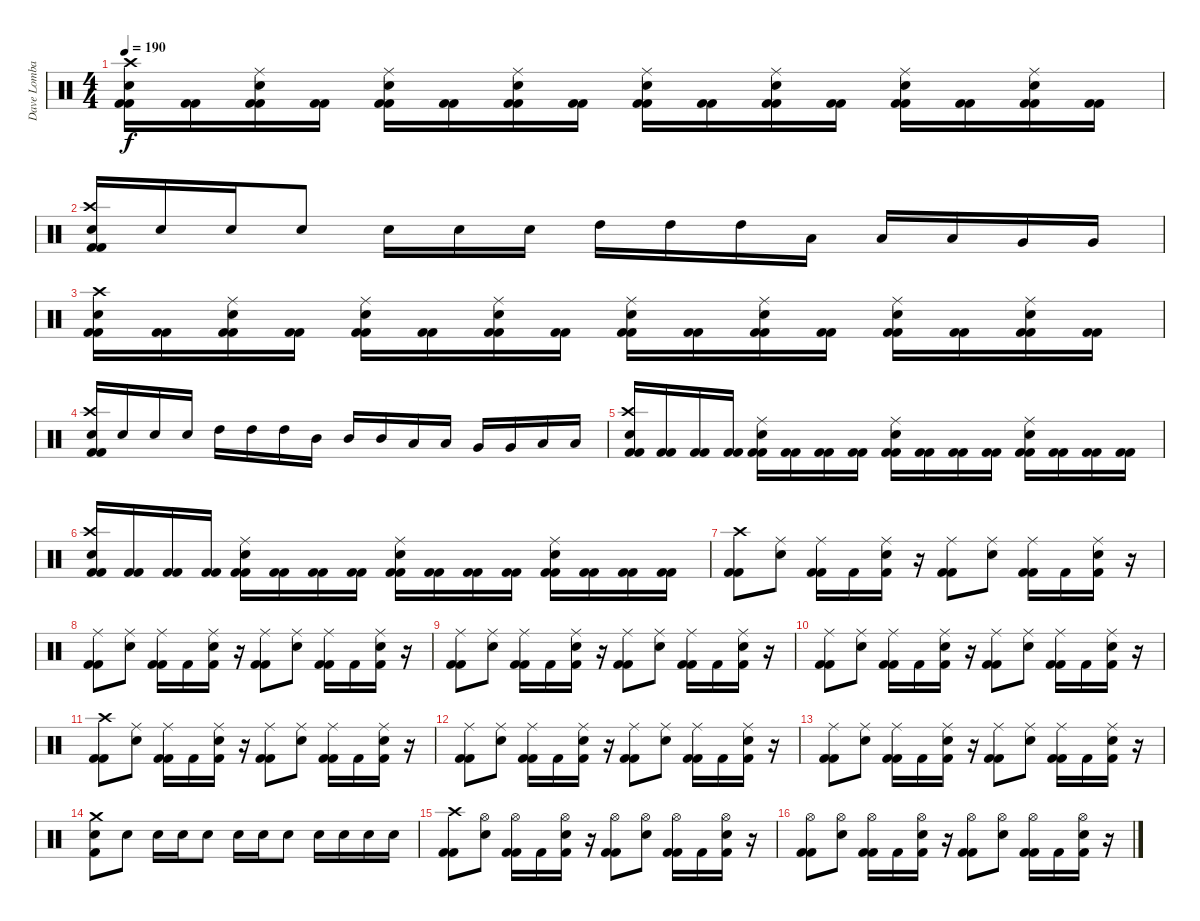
\track ("Dave Lombardo" "Dave Lomba") {instrument percussion}
\staff {score}
\articulation defaults
\ts (4 4)
\tempo 190
\clef neutral
\ks c
("Kick (hit) 2" "Crash high (hit)" "Electric Snare (hit)" "Kick (hit) 2").16{dy f} ("Kick (hit) 2" "Kick (hit) 2").16 ("Kick (hit) 2" "Ride (middle)" "Electric Snare (hit)" "Kick (hit) 2").16 ("Kick (hit) 2" "Kick (hit) 2").16 ("Kick (hit) 2" "Ride (middle)" "Electric Snare (hit)" "Kick (hit) 2").16 ("Kick (hit) 2" "Kick (hit) 2").16 ("Kick (hit) 2" "Ride (middle)" "Electric Snare (hit)" "Kick (hit) 2").16 ("Kick (hit) 2" "Kick (hit) 2").16 ("Kick (hit) 2" "Ride (middle)" "Electric Snare (hit)" "Kick (hit) 2").16 ("Kick (hit) 2" "Kick (hit) 2").16 ("Kick (hit) 2" "Ride (middle)" "Electric Snare (hit)" "Kick (hit) 2").16 ("Kick (hit) 2" "Kick (hit) 2").16 ("Kick (hit) 2" "Ride (middle)" "Electric Snare (hit)" "Kick (hit) 2").16 ("Kick (hit) 2" "Kick (hit) 2").16 ("Kick (hit) 2" "Ride (middle)" "Electric Snare (hit)" "Kick (hit) 2").16 ("Kick (hit) 2" "Kick (hit) 2").16 |
("Kick (hit) 2" "Crash high (hit)" "Electric Snare (hit)" "Kick (hit) 2").16 "Electric Snare (hit)".16 "Electric Snare (hit)".16 "Electric Snare (hit)".8 "Electric Snare (hit)".16 "Electric Snare (hit)".16 "Electric Snare (hit)".16 "High Tom (hit)".16 "High Tom (hit)".16 "High Tom (hit)".16 "Low Tom (hit)".16 "Low Tom (hit)".16 "Low Tom (hit)".16 "Very Low Tom (hit)".16 "Very Low Tom (hit)".16 |
("Kick (hit) 2" "Crash high (hit)" "Electric Snare (hit)" "Kick (hit) 2").16 ("Kick (hit) 2" "Kick (hit) 2").16 ("Kick (hit) 2" "Ride (middle)" "Electric Snare (hit)" "Kick (hit) 2").16 ("Kick (hit) 2" "Kick (hit) 2").16 ("Kick (hit) 2" "Ride (middle)" "Electric Snare (hit)" "Kick (hit) 2").16 ("Kick (hit) 2" "Kick (hit) 2").16 ("Kick (hit) 2" "Ride (middle)" "Electric Snare (hit)" "Kick (hit) 2").16 ("Kick (hit) 2" "Kick (hit) 2").16 ("Kick (hit) 2" "Ride (middle)" "Electric Snare (hit)" "Kick (hit) 2").16 ("Kick (hit) 2" "Kick (hit) 2").16 ("Kick (hit) 2" "Ride (middle)" "Electric Snare (hit)" "Kick (hit) 2").16 ("Kick (hit) 2" "Kick (hit) 2").16 ("Kick (hit) 2" "Ride (middle)" "Electric Snare (hit)" "Kick (hit) 2").16 ("Kick (hit) 2" "Kick (hit) 2").16 ("Kick (hit) 2" "Ride (middle)" "Electric Snare (hit)" "Kick (hit) 2").16 ("Kick (hit) 2" "Kick (hit) 2").16 |
("Kick (hit) 2" "Crash high (hit)" "Electric Snare (hit)" "Kick (hit) 2").16 "Electric Snare (hit)".16 "Electric Snare (hit)".16 "Electric Snare (hit)".16 "High Tom (hit)".16 "High Tom (hit)".16 "High Tom (hit)".16 "Mid Tom (hit)".16 "Mid Tom (hit)".16 "Mid Tom (hit)".16 "Low Tom (hit)".16 "Low Tom (hit)".16 "Very Low Tom (hit)".16 "Very Low Tom (hit)".16 "Low Floor Tom (hit)".16 "Low Floor Tom (hit)".16 |
("Kick (hit) 2" "Crash high (hit)" "Electric Snare (hit)" "Kick (hit) 2").16 ("Kick (hit) 2" "Kick (hit) 2").16 ("Kick (hit) 2" "Kick (hit) 2").16 ("Kick (hit) 2" "Kick (hit) 2").16 ("Kick (hit) 2" "Ride (middle)" "Electric Snare (hit)" "Kick (hit) 2").16 ("Kick (hit) 2" "Kick (hit) 2").16 ("Kick (hit) 2" "Kick (hit) 2").16 ("Kick (hit) 2" "Kick (hit) 2").16 ("Kick (hit) 2" "Ride (middle)" "Electric Snare (hit)" "Kick (hit) 2").16 ("Kick (hit) 2" "Kick (hit) 2").16 ("Kick (hit) 2" "Kick (hit) 2").16 ("Kick (hit) 2" "Kick (hit) 2").16 ("Kick (hit) 2" "Ride (middle)" "Electric Snare (hit)" "Kick (hit) 2").16 ("Kick (hit) 2" "Kick (hit) 2").16 ("Kick (hit) 2" "Kick (hit) 2").16 ("Kick (hit) 2" "Kick (hit) 2").16 |
("Kick (hit) 2" "Crash high (hit)" "Electric Snare (hit)" "Kick (hit) 2").16 ("Kick (hit) 2" "Kick (hit) 2").16 ("Kick (hit) 2" "Kick (hit) 2").16 ("Kick (hit) 2" "Kick (hit) 2").16 ("Kick (hit) 2" "Ride (middle)" "Electric Snare (hit)" "Kick (hit) 2").16 ("Kick (hit) 2" "Kick (hit) 2").16 ("Kick (hit) 2" "Kick (hit) 2").16 ("Kick (hit) 2" "Kick (hit) 2").16 ("Kick (hit) 2" "Ride (middle)" "Electric Snare (hit)" "Kick (hit) 2").16 ("Kick (hit) 2" "Kick (hit) 2").16 ("Kick (hit) 2" "Kick (hit) 2").16 ("Kick (hit) 2" "Kick (hit) 2").16 ("Kick (hit) 2" "Ride (middle)" "Electric Snare (hit)" "Kick (hit) 2").16 ("Kick (hit) 2" "Kick (hit) 2").16 ("Kick (hit) 2" "Kick (hit) 2").16 ("Kick (hit) 2" "Kick (hit) 2").16 |
("Kick (hit) 2" "Crash high (hit)" "Kick (hit) 2").8 ("Ride (middle)" "Electric Snare (hit)").8 ("Kick (hit) 2" "Ride (middle)" "Kick (hit) 2").16 "Kick (hit) 2".16 ("Ride (middle)" "Electric Snare (hit)" "Kick (hit) 2").16 r.16 ("Kick (hit) 2" "Ride (middle)" "Kick (hit) 2").8 ("Ride (middle)" "Electric Snare (hit)").8 ("Kick (hit) 2" "Ride (middle)" "Kick (hit) 2").16 "Kick (hit) 2".16 ("Ride (middle)" "Electric Snare (hit)" "Kick (hit) 2").16 r.16 |
("Kick (hit) 2" "Ride (middle)" "Kick (hit) 2").8 ("Ride (middle)" "Electric Snare (hit)").8 ("Kick (hit) 2" "Ride (middle)" "Kick (hit) 2").16 "Kick (hit) 2".16 ("Ride (middle)" "Electric Snare (hit)" "Kick (hit) 2").16 r.16 ("Kick (hit) 2" "Ride (middle)" "Kick (hit) 2").8 ("Ride (middle)" "Electric Snare (hit)").8 ("Kick (hit) 2" "Ride (middle)" "Kick (hit) 2").16 "Kick (hit) 2".16 ("Ride (middle)" "Electric Snare (hit)" "Kick (hit) 2").16 r.16 |
("Kick (hit) 2" "Ride (middle)" "Kick (hit) 2").8 ("Ride (middle)" "Electric Snare (hit)").8 ("Kick (hit) 2" "Ride (middle)" "Kick (hit) 2").16 "Kick (hit) 2".16 ("Ride (middle)" "Electric Snare (hit)" "Kick (hit) 2").16 r.16 ("Kick (hit) 2" "Ride (middle)" "Kick (hit) 2").8 ("Ride (middle)" "Electric Snare (hit)").8 ("Kick (hit) 2" "Ride (middle)" "Kick (hit) 2").16 "Kick (hit) 2".16 ("Ride (middle)" "Electric Snare (hit)" "Kick (hit) 2").16 r.16 |
("Kick (hit) 2" "Ride (middle)" "Kick (hit) 2").8 ("Ride (middle)" "Electric Snare (hit)").8 ("Kick (hit) 2" "Ride (middle)" "Kick (hit) 2").16 "Kick (hit) 2".16 ("Ride (middle)" "Electric Snare (hit)" "Kick (hit) 2").16 r.16 ("Kick (hit) 2" "Ride (middle)" "Kick (hit) 2").8 ("Ride (middle)" "Electric Snare (hit)").8 ("Kick (hit) 2" "Ride (middle)" "Kick (hit) 2").16 "Kick (hit) 2".16 ("Ride (middle)" "Electric Snare (hit)" "Kick (hit) 2").16 r.16 |
("Kick (hit) 2" "Crash high (hit)" "Kick (hit) 2").8 ("Ride (middle)" "Electric Snare (hit)").8 ("Kick (hit) 2" "Ride (middle)" "Kick (hit) 2").16 "Kick (hit) 2".16 ("Ride (middle)" "Electric Snare (hit)" "Kick (hit) 2").16 r.16 ("Kick (hit) 2" "Ride (middle)" "Kick (hit) 2").8 ("Ride (middle)" "Electric Snare (hit)").8 ("Kick (hit) 2" "Ride (middle)" "Kick (hit) 2").16 "Kick (hit) 2".16 ("Ride (middle)" "Electric Snare (hit)" "Kick (hit) 2").16 r.16 |
("Kick (hit) 2" "Ride (middle)" "Kick (hit) 2").8 ("Ride (middle)" "Electric Snare (hit)").8 ("Kick (hit) 2" "Ride (middle)" "Kick (hit) 2").16 "Kick (hit) 2".16 ("Ride (middle)" "Electric Snare (hit)" "Kick (hit) 2").16 r.16 ("Kick (hit) 2" "Ride (middle)" "Kick (hit) 2").8 ("Ride (middle)" "Electric Snare (hit)").8 ("Kick (hit) 2" "Ride (middle)" "Kick (hit) 2").16 "Kick (hit) 2".16 ("Ride (middle)" "Electric Snare (hit)" "Kick (hit) 2").16 r.16 |
("Kick (hit) 2" "Ride (middle)" "Kick (hit) 2").8 ("Ride (middle)" "Electric Snare (hit)").8 ("Kick (hit) 2" "Ride (middle)" "Kick (hit) 2").16 "Kick (hit) 2".16 ("Ride (middle)" "Electric Snare (hit)" "Kick (hit) 2").16 r.16 ("Kick (hit) 2" "Ride (middle)" "Kick (hit) 2").8 ("Ride (middle)" "Electric Snare (hit)").8 ("Kick (hit) 2" "Ride (middle)" "Kick (hit) 2").16 "Kick (hit) 2".16 ("Ride (middle)" "Electric Snare (hit)" "Kick (hit) 2").16 r.16 |
("Crash medium (hit)" "Electric Snare (hit)" "Kick (hit) 2").8 "Electric Snare (hit)".8 "Electric Snare (hit)".16 "Electric Snare (hit)".16 "Electric Snare (hit)".8 "Electric Snare (hit)".16 "Electric Snare (hit)".16 "Electric Snare (hit)".8 "Electric Snare (hit)".16 "Electric Snare (hit)".16 "Electric Snare (hit)".16 "Electric Snare (hit)".16 |
("Kick (hit) 2" "Crash high (hit)" "Kick (hit) 2").8 ("Hi-Hat (open)" "Electric Snare (hit)").8 ("Kick (hit) 2" "Hi-Hat (open)" "Kick (hit) 2").16 "Kick (hit) 2".16 ("Hi-Hat (open)" "Electric Snare (hit)" "Kick (hit) 2").16 r.16 ("Kick (hit) 2" "Hi-Hat (open)" "Kick (hit) 2").8 ("Hi-Hat (open)" "Electric Snare (hit)").8 ("Kick (hit) 2" "Hi-Hat (open)" "Kick (hit) 2").16 "Kick (hit) 2".16 ("Hi-Hat (open)" "Electric Snare (hit)" "Kick (hit) 2").16 r.16 |
("Kick (hit) 2" "Hi-Hat (open)" "Kick (hit) 2").8 ("Hi-Hat (open)" "Electric Snare (hit)").8 ("Kick (hit) 2" "Hi-Hat (open)" "Kick (hit) 2").16 "Kick (hit) 2".16 ("Hi-Hat (open)" "Electric Snare (hit)" "Kick (hit) 2").16 r.16 ("Kick (hit) 2" "Hi-Hat (open)" "Kick (hit) 2").8 ("Hi-Hat (open)" "Electric Snare (hit)").8 ("Kick (hit) 2" "Hi-Hat (open)" "Kick (hit) 2").16 "Kick (hit) 2".16 ("Hi-Hat (open)" "Electric Snare (hit)" "Kick (hit) 2").16 r.16
